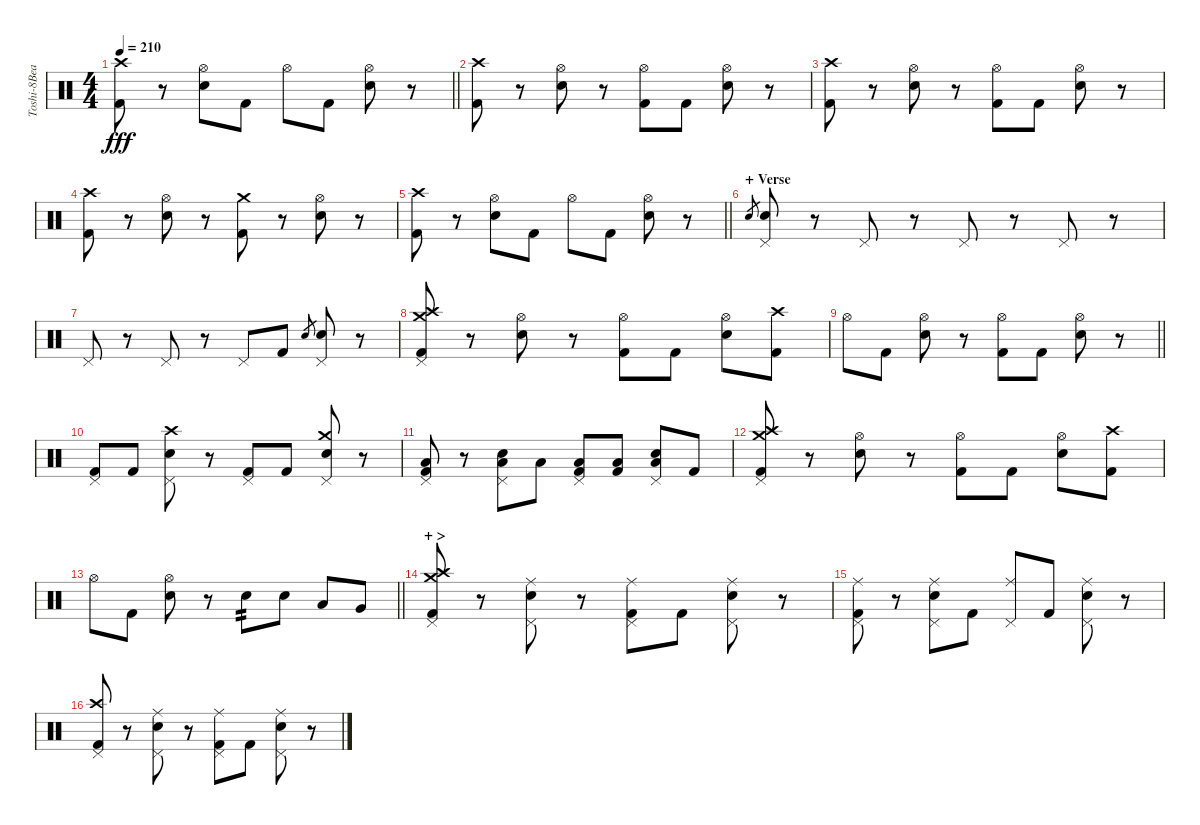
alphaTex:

\track ("Toshi-8Beat" "Toshi-8Bea") {instrument percussion}
\staff {score}
\articulation defaults
\ts (4 4)
\tempo 210
\clef neutral
\barLineRight lightlight
\ks c
("Kick (hit) 2" "Crash high (hit)").8{dy fff} r.8 ("Hi-Hat (open)" "Snare (hit) 2").8 "Kick (hit) 2".8 "Hi-Hat (open)".8 "Kick (hit) 2".8 ("Hi-Hat (open)" "Snare (hit) 2").8 r.8 |
("Kick (hit) 2" "Crash high (hit)").8 r.8 ("Hi-Hat (open)" "Snare (hit) 2").8 r.8 ("Hi-Hat (open)" "Kick (hit) 2").8 "Kick (hit) 2".8 ("Hi-Hat (open)" "Snare (hit) 2").8 r.8 |
("Kick (hit) 2" "Crash high (hit)").8 r.8 ("Hi-Hat (open)" "Snare (hit) 2").8 r.8 ("Hi-Hat (open)" "Kick (hit) 2").8 "Kick (hit) 2".8 ("Hi-Hat (open)" "Snare (hit) 2").8 r.8 |
("Kick (hit) 2" "Crash high (hit)").8 r.8 ("Hi-Hat (open)" "Snare (hit) 2").8 r.8 ("Kick (hit) 2" "Crash medium (hit)").8 r.8 ("Hi-Hat (open)" "Snare (hit) 2").8 r.8 |
\barLineRight lightlight
("Kick (hit) 2" "Crash high (hit)").8 r.8 ("Hi-Hat (open)" "Snare (hit) 2").8 "Kick (hit) 2".8 "Hi-Hat (open)".8 "Kick (hit) 2".8 ("Hi-Hat (open)" "Snare (hit) 2").8 r.8 |
\section ("" "+ Verse")
"Snare (hit) 2".8{gr} ("Pedal Hi-Hat (hit)" "Snare (hit) 2").8 r.8 "Pedal Hi-Hat (hit)".8 r.8 "Pedal Hi-Hat (hit)".8 r.8 "Pedal Hi-Hat (hit)".8 r.8 |
"Pedal Hi-Hat (hit)".8 r.8 "Pedal Hi-Hat (hit)".8 r.8 "Pedal Hi-Hat (hit)".8 "Kick (hit) 2".8 "Snare (hit) 2".8{gr} ("Pedal Hi-Hat (hit)" "Snare (hit) 2").8 r.8 |
("Pedal Hi-Hat (hit)" "Kick (hit) 2" "Crash medium (hit)" "Crash high (hit)").8 r.8 ("Hi-Hat (open)" "Snare (hit) 2").8 r.8 ("Hi-Hat (open)" "Kick (hit) 2").8 "Kick (hit) 2".8 ("Hi-Hat (open)" "Snare (hit) 2").8 ("Kick (hit) 2" "Crash high (hit)").8 |
\barLineRight lightlight "Hi-Hat (open)".8 "Kick (hit) 2".8
("Hi-Hat (open)" "Snare (hit) 2").8 r.8 ("Hi-Hat (open)" "Kick (hit) 2").8 "Kick (hit) 2".8 ("Hi-Hat (open)" "Snare (hit) 2").8 r.8 |
("Pedal Hi-Hat (hit)" "Kick (hit) 2").8 "Kick (hit) 2".8 ("Pedal Hi-Hat (hit)" "Snare (hit) 2" "Crash high (hit)").8 r.8 ("Pedal Hi-Hat (hit)" "Kick (hit) 2").8 "Kick (hit) 2".8 ("Pedal Hi-Hat (hit)" "Snare (hit) 2" "Crash medium (hit)").8 r.8 |
("Pedal Hi-Hat (hit)" "Kick (hit) 2" "Low Floor Tom (hit)").8 r.8 ("Pedal Hi-Hat (hit)" "Snare (hit) 2" "Low Floor Tom (hit)").8 "Low Floor Tom (hit)".8 ("Pedal Hi-Hat (hit)" "Kick (hit) 2" "Low Floor Tom (hit)").8 ("Kick (hit) 2" "Low Floor Tom (hit)").8 ("Pedal Hi-Hat (hit)" "Snare (hit) 2" "Low Floor Tom (hit)").8 "Kick (hit) 2".8 |
("Pedal Hi-Hat (hit)" "Kick (hit) 2" "Crash medium (hit)" "Crash high (hit)").8 r.8 ("Hi-Hat (open)" "Snare (hit) 2").8 r.8 ("Hi-Hat (open)" "Kick (hit) 2").8 "Kick (hit) 2".8 ("Hi-Hat (open)" "Snare (hit) 2").8 ("Kick (hit) 2" "Crash high (hit)").8 |
\barLineRight lightlight "Hi-Hat (open)".8 "Kick (hit) 2".8
("Hi-Hat (open)" "Snare (hit) 2").8 r.8 "Snare (hit) 2".8{tp 2} "Snare (hit) 2".8 "Low Tom (hit)".8 "Very Low Tom (hit)".8 |
\section ("" "+ >")
("Pedal Hi-Hat (hit)" "Kick (hit) 2" "Crash medium (hit)" "Crash high (hit)").8 r.8 ("Pedal Hi-Hat (hit)" "Snare (hit) 2" "Ride (middle)").8 r.8 ("Pedal Hi-Hat (hit)" "Kick (hit) 2" "Ride (middle)").8 "Kick (hit) 2".8 ("Pedal Hi-Hat (hit)" "Snare (hit) 2" "Ride (middle)").8 r.8 |
("Pedal Hi-Hat (hit)" "Kick (hit) 2" "Ride (middle)").8 r.8 ("Pedal Hi-Hat (hit)" "Snare (hit) 2" "Ride (middle)").8 "Kick (hit) 2".8 ("Pedal Hi-Hat (hit)" "Ride (middle)").8 "Kick (hit) 2".8 ("Pedal Hi-Hat (hit)" "Snare (hit) 2" "Ride (middle)").8 r.8 |
("Pedal Hi-Hat (hit)" "Kick (hit) 2" "Crash high (hit)").8 r.8 ("Pedal Hi-Hat (hit)" "Snare (hit) 2" "Ride (middle)").8 r.8 ("Pedal Hi-Hat (hit)" "Kick (hit) 2" "Ride (middle)").8 "Kick (hit) 2".8 ("Pedal Hi-Hat (hit)" "Snare (hit) 2" "Ride (middle)").8 r.8
